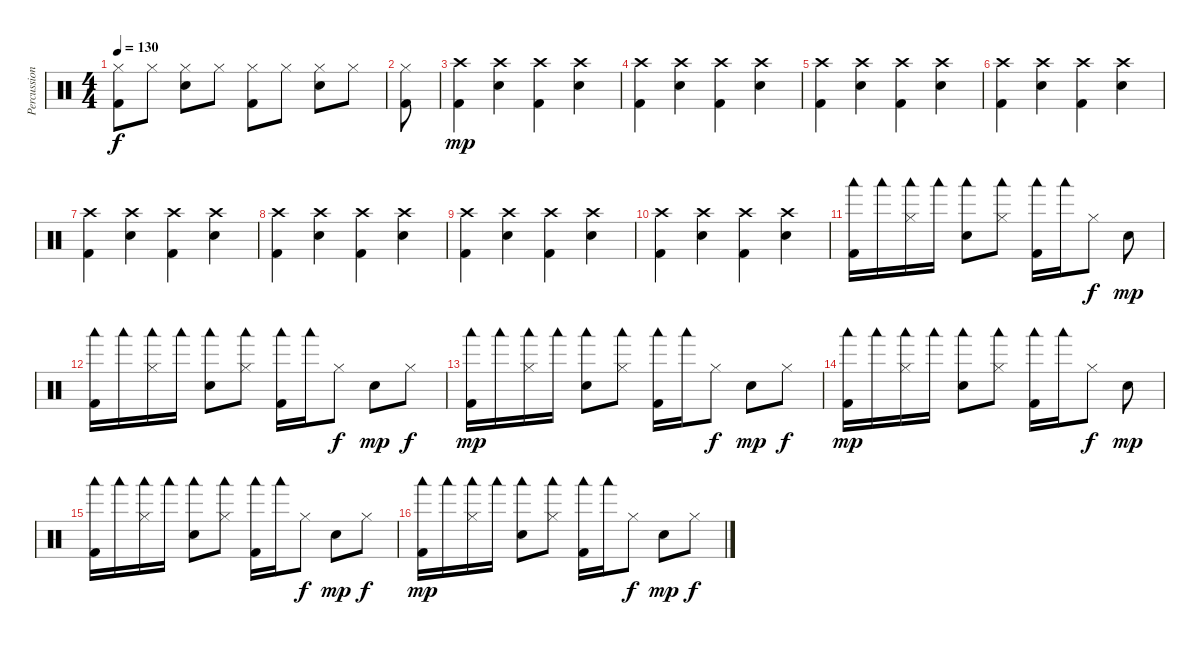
\track ("Percussion" "Percussion") {instrument percussion}
\staff {score}
\articulation defaults
\ts (4 4)
\tempo 130
\clef neutral
\ks c
("Hi-Hat (closed)" "Kick (hit) 2").8{dy f} "Hi-Hat (closed)".8 ("Hi-Hat (closed)" "Electric Snare (hit)").8 "Hi-Hat (closed)".8 ("Hi-Hat (closed)" "Kick (hit) 2").8 "Hi-Hat (closed)".8 ("Hi-Hat (closed)" "Electric Snare (hit)").8 "Hi-Hat (closed)".8 |
("Hi-Hat (closed)" "Kick (hit) 2").8 |
("Crash high (hit)" "Kick (hit) 2").4{dy mp} ("Crash high (hit)" "Snare (hit) 2").4 ("Crash high (hit)" "Kick (hit) 2").4 ("Crash high (hit)" "Snare (hit) 2").4 |
("Crash high (hit)" "Kick (hit) 2").4 ("Crash high (hit)" "Snare (hit) 2").4 ("Crash high (hit)" "Kick (hit) 2").4 ("Crash high (hit)" "Snare (hit) 2").4 |
("Crash high (hit)" "Kick (hit) 2").4 ("Crash high (hit)" "Snare (hit) 2").4 ("Crash high (hit)" "Kick (hit) 2").4 ("Crash high (hit)" "Snare (hit) 2").4 |
("Crash high (hit)" "Kick (hit) 2").4 ("Crash high (hit)" "Snare (hit) 2").4 ("Crash high (hit)" "Kick (hit) 2").4 ("Crash high (hit)" "Snare (hit) 2").4 |
("Crash high (hit)" "Kick (hit) 2").4 ("Crash high (hit)" "Snare (hit) 2").4 ("Crash high (hit)" "Kick (hit) 2").4 ("Crash high (hit)" "Snare (hit) 2").4 |
("Crash high (hit)" "Kick (hit) 2").4 ("Crash high (hit)" "Snare (hit) 2").4 ("Crash high (hit)" "Kick (hit) 2").4 ("Crash high (hit)" "Snare (hit) 2").4 |
("Crash high (hit)" "Kick (hit) 2").4 ("Crash high (hit)" "Snare (hit) 2").4 ("Crash high (hit)" "Kick (hit) 2").4 ("Crash high (hit)" "Snare (hit) 2").4 |
("Crash high (hit)" "Kick (hit) 2").4 ("Crash high (hit)" "Snare (hit) 2").4 ("Crash high (hit)" "Kick (hit) 2").4 ("Crash high (hit)" "Snare (hit) 2").4 |
("Woodblock low (hit)" "Kick (hit) 2").16 "Woodblock low (hit)".16 ("Woodblock low (hit)" "Hi-Hat (closed)").16 "Woodblock low (hit)".16 ("Woodblock low (hit)" "Electric Snare (hit)").8 ("Woodblock low (hit)" "Hi-Hat (closed)").8 ("Woodblock low (hit)" "Kick (hit) 2").16 "Woodblock low (hit)".16 "Hi-Hat (closed)".8{dy f} "Electric Snare (hit)".8{dy mp} |
("Woodblock low (hit)" "Kick (hit) 2").16 "Woodblock low (hit)".16 ("Woodblock low (hit)" "Hi-Hat (closed)").16 "Woodblock low (hit)".16 ("Woodblock low (hit)" "Electric Snare (hit)").8 ("Woodblock low (hit)" "Hi-Hat (closed)").8 ("Woodblock low (hit)" "Kick (hit) 2").16 "Woodblock low (hit)".16 "Hi-Hat (closed)".8{dy f} "Electric Snare (hit)".8{dy mp} "Hi-Hat (closed)".8{dy f} |
("Woodblock low (hit)" "Kick (hit) 2").16{dy mp} "Woodblock low (hit)".16 ("Woodblock low (hit)" "Hi-Hat (closed)").16 "Woodblock low (hit)".16 ("Woodblock low (hit)" "Electric Snare (hit)").8 ("Woodblock low (hit)" "Hi-Hat (closed)").8 ("Woodblock low (hit)" "Kick (hit) 2").16 "Woodblock low (hit)".16 "Hi-Hat (closed)".8{dy f} "Electric Snare (hit)".8{dy mp} "Hi-Hat (closed)".8{dy f} |
("Woodblock low (hit)" "Kick (hit) 2").16{dy mp} "Woodblock low (hit)".16 ("Woodblock low (hit)" "Hi-Hat (closed)").16 "Woodblock low (hit)".16 ("Woodblock low (hit)" "Electric Snare (hit)").8 ("Woodblock low (hit)" "Hi-Hat (closed)").8 ("Woodblock low (hit)" "Kick (hit) 2").16 "Woodblock low (hit)".16 "Hi-Hat (closed)".8{dy f} "Electric Snare (hit)".8{dy mp} |
("Woodblock low (hit)" "Kick (hit) 2").16 "Woodblock low (hit)".16 ("Woodblock low (hit)" "Hi-Hat (closed)").16 "Woodblock low (hit)".16 ("Woodblock low (hit)" "Electric Snare (hit)").8 ("Woodblock low (hit)" "Hi-Hat (closed)").8 ("Woodblock low (hit)" "Kick (hit) 2").16 "Woodblock low (hit)".16 "Hi-Hat (closed)".8{dy f} "Electric Snare (hit)".8{dy mp} "Hi-Hat (closed)".8{dy f} |
("Woodblock low (hit)" "Kick (hit) 2").16{dy mp} "Woodblock low (hit)".16 ("Woodblock low (hit)" "Hi-Hat (closed)").16 "Woodblock low (hit)".16 ("Woodblock low (hit)" "Electric Snare (hit)").8 ("Woodblock low (hit)" "Hi-Hat (closed)").8 ("Woodblock low (hit)" "Kick (hit) 2").16 "Woodblock low (hit)".16 "Hi-Hat (closed)".8{dy f} "Electric Snare (hit)".8{dy mp} "Hi-Hat (closed)".8{dy f}
